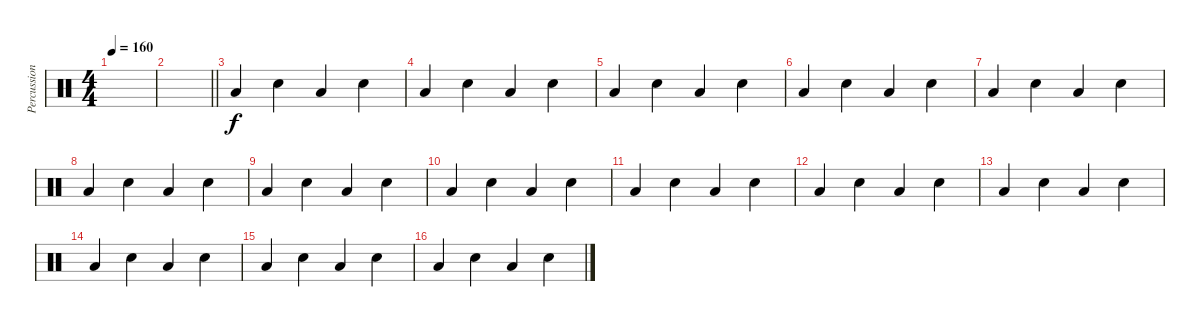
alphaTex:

\track ("Percussion" "Percussion") {instrument percussion}
\staff {score}
\articulation defaults
\ts (4 4)
\tempo 160
\clef neutral
\ks c
|
\barLineRight lightlight
|
"Low Tom (hit)".4 "Hand Clap (hit)".4 "Low Tom (hit)".4 "Hand Clap (hit)".4 |
"Low Tom (hit)".4 "Hand Clap (hit)".4 "Low Tom (hit)".4 "Hand Clap (hit)".4 |
"Low Tom (hit)".4 "Hand Clap (hit)".4 "Low Tom (hit)".4 "Hand Clap (hit)".4 |
"Low Tom (hit)".4 "Hand Clap (hit)".4 "Low Tom (hit)".4 "Hand Clap (hit)".4 |
"Low Tom (hit)".4 "Hand Clap (hit)".4 "Low Tom (hit)".4 "Hand Clap (hit)".4 |
"Low Tom (hit)".4 "Hand Clap (hit)".4 "Low Tom (hit)".4 "Hand Clap (hit)".4 |
"Low Tom (hit)".4 "Hand Clap (hit)".4 "Low Tom (hit)".4 "Hand Clap (hit)".4 |
"Low Tom (hit)".4 "Hand Clap (hit)".4 "Low Tom (hit)".4 "Hand Clap (hit)".4 |
"Low Tom (hit)".4 "Hand Clap (hit)".4 "Low Tom (hit)".4 "Hand Clap (hit)".4 |
"Low Tom (hit)".4 "Hand Clap (hit)".4 "Low Tom (hit)".4 "Hand Clap (hit)".4 |
"Low Tom (hit)".4 "Hand Clap (hit)".4 "Low Tom (hit)".4 "Hand Clap (hit)".4 |
"Low Tom (hit)".4 "Hand Clap (hit)".4 "Low Tom (hit)".4 "Hand Clap (hit)".4 |
"Low Tom (hit)".4 "Hand Clap (hit)".4 "Low Tom (hit)".4 "Hand Clap (hit)".4 |
"Low Tom (hit)".4 "Hand Clap (hit)".4 "Low Tom (hit)".4 "Hand Clap (hit)".4
